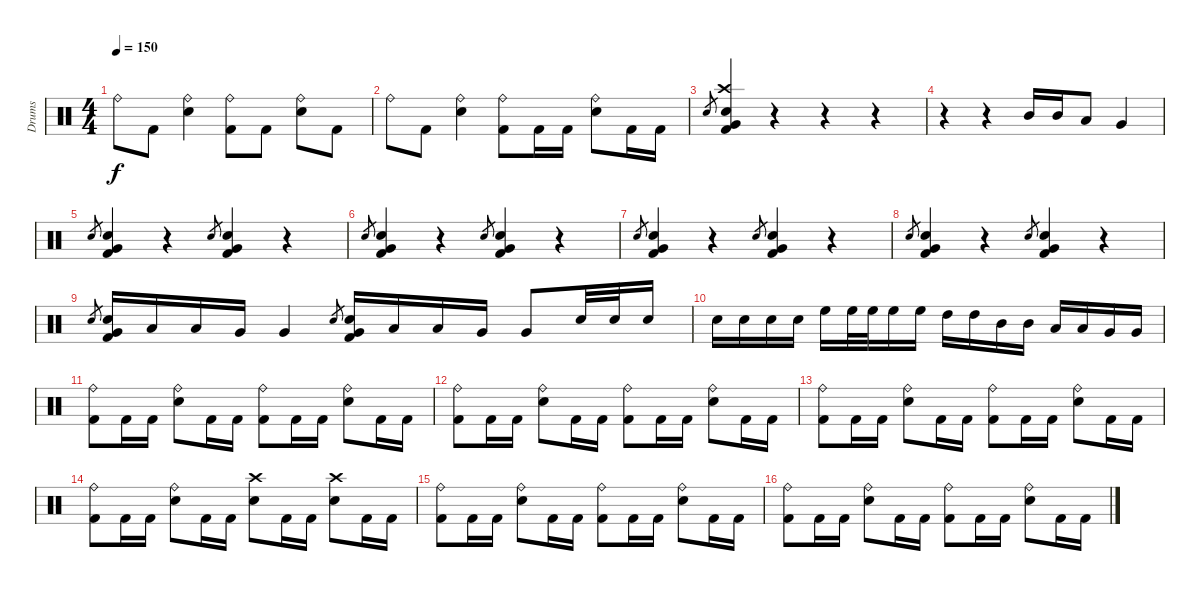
\track ("Drums" "Drums") {instrument percussion}
\staff {score}
\articulation defaults
\ts (4 4)
\tempo 150
\clef neutral
\ks c "Ride (bell)".8{dy f} "Kick (hit) 2".8
("Ride (bell)" "Electric Snare (hit)").4 ("Ride (bell)" "Kick (hit) 2").8 "Kick (hit) 2".8 ("Ride (bell)" "Electric Snare (hit)").8 "Kick (hit) 2".8 |
"Ride (bell)".8 "Kick (hit) 2".8 ("Ride (bell)" "Electric Snare (hit)").4 ("Ride (bell)" "Kick (hit) 2").8 "Kick (hit) 2".16 "Kick (hit) 2".16 ("Ride (bell)" "Electric Snare (hit)").8 "Kick (hit) 2".16 "Kick (hit) 2".16 |
"Electric Snare (hit)".8{gr} ("Crash high (hit)" "Very Low Tom (hit)" "Electric Snare (hit)" "Kick (hit) 2").4 r.4 r.4 r.4 |
r.4 r.4 "Mid Tom (hit)".16 "Mid Tom (hit)".16 "Low Tom (hit)".8 "Very Low Tom (hit)".4 |
"Electric Snare (hit)".8{gr} ("Very Low Tom (hit)" "Electric Snare (hit)" "Kick (hit) 2").4 r.4 "Electric Snare (hit)".8{gr} ("Very Low Tom (hit)" "Electric Snare (hit)" "Kick (hit) 2").4 r.4 |
"Electric Snare (hit)".8{gr} ("Very Low Tom (hit)" "Electric Snare (hit)" "Kick (hit) 2").4 r.4 "Electric Snare (hit)".8{gr} ("Very Low Tom (hit)" "Electric Snare (hit)" "Kick (hit) 2").4 r.4 |
"Electric Snare (hit)".8{gr} ("Very Low Tom (hit)" "Electric Snare (hit)" "Kick (hit) 2").4 r.4 "Electric Snare (hit)".8{gr} ("Very Low Tom (hit)" "Electric Snare (hit)" "Kick (hit) 2").4 r.4 |
"Electric Snare (hit)".8{gr} ("Very Low Tom (hit)" "Electric Snare (hit)" "Kick (hit) 2").4 r.4 "Electric Snare (hit)".8{gr} ("Very Low Tom (hit)" "Electric Snare (hit)" "Kick (hit) 2").4 r.4 |
"Electric Snare (hit)".8{gr} ("Very Low Tom (hit)" "Electric Snare (hit)" "Kick (hit) 2").16 "Low Tom (hit)".16 "Low Tom (hit)".16 "Very Low Tom (hit)".16 "Very Low Tom (hit)".4 "Electric Snare (hit)".8{gr} ("Very Low Tom (hit)" "Electric Snare (hit)" "Kick (hit) 2").16 "Low Tom (hit)".16 "Low Tom (hit)".16 "Very Low Tom (hit)".16 "Very Low Tom (hit)".8 "Electric Snare (hit)".32 "Electric Snare (hit)".32 "Electric Snare (hit)".16 |
"Electric Snare (hit)".16 "Electric Snare (hit)".16 "Electric Snare (hit)".16 "Electric Snare (hit)".16 "High Floor Tom (hit)".16 "High Floor Tom (hit)".32 "High Floor Tom (hit)".32 "High Floor Tom (hit)".16 "High Floor Tom (hit)".16 "High Tom (hit)".16 "High Tom (hit)".16 "Mid Tom (hit)".16 "Mid Tom (hit)".16 "Low Tom (hit)".16 "Low Tom (hit)".16 "Very Low Tom (hit)".16 "Very Low Tom (hit)".16 |
("Ride (bell)" "Kick (hit) 2").8 "Kick (hit) 2".16 "Kick (hit) 2".16 ("Ride (bell)" "Electric Snare (hit)").8 "Kick (hit) 2".16 "Kick (hit) 2".16 ("Ride (bell)" "Kick (hit) 2").8 "Kick (hit) 2".16 "Kick (hit) 2".16 ("Ride (bell)" "Electric Snare (hit)").8 "Kick (hit) 2".16 "Kick (hit) 2".16 |
("Ride (bell)" "Kick (hit) 2").8 "Kick (hit) 2".16 "Kick (hit) 2".16 ("Ride (bell)" "Electric Snare (hit)").8 "Kick (hit) 2".16 "Kick (hit) 2".16 ("Ride (bell)" "Kick (hit) 2").8 "Kick (hit) 2".16 "Kick (hit) 2".16 ("Ride (bell)" "Electric Snare (hit)").8 "Kick (hit) 2".16 "Kick (hit) 2".16 |
("Ride (bell)" "Kick (hit) 2").8 "Kick (hit) 2".16 "Kick (hit) 2".16 ("Ride (bell)" "Electric Snare (hit)").8 "Kick (hit) 2".16 "Kick (hit) 2".16 ("Ride (bell)" "Kick (hit) 2").8 "Kick (hit) 2".16 "Kick (hit) 2".16 ("Ride (bell)" "Electric Snare (hit)").8 "Kick (hit) 2".16 "Kick (hit) 2".16 |
("Ride (bell)" "Kick (hit) 2").8 "Kick (hit) 2".16 "Kick (hit) 2".16 ("Ride (bell)" "Electric Snare (hit)").8 "Kick (hit) 2".16 "Kick (hit) 2".16 ("Crash high (hit)" "Electric Snare (hit)").8 "Kick (hit) 2".16 "Kick (hit) 2".16 ("Crash high (hit)" "Electric Snare (hit)").8 "Kick (hit) 2".16 "Kick (hit) 2".16 |
("Ride (bell)" "Kick (hit) 2").8 "Kick (hit) 2".16 "Kick (hit) 2".16 ("Ride (bell)" "Electric Snare (hit)").8 "Kick (hit) 2".16 "Kick (hit) 2".16 ("Ride (bell)" "Kick (hit) 2").8 "Kick (hit) 2".16 "Kick (hit) 2".16 ("Ride (bell)" "Electric Snare (hit)").8 "Kick (hit) 2".16 "Kick (hit) 2".16 |
("Ride (bell)" "Kick (hit) 2").8 "Kick (hit) 2".16 "Kick (hit) 2".16 ("Ride (bell)" "Electric Snare (hit)").8 "Kick (hit) 2".16 "Kick (hit) 2".16 ("Ride (bell)" "Kick (hit) 2").8 "Kick (hit) 2".16 "Kick (hit) 2".16 ("Ride (bell)" "Electric Snare (hit)").8 "Kick (hit) 2".16 "Kick (hit) 2".16
